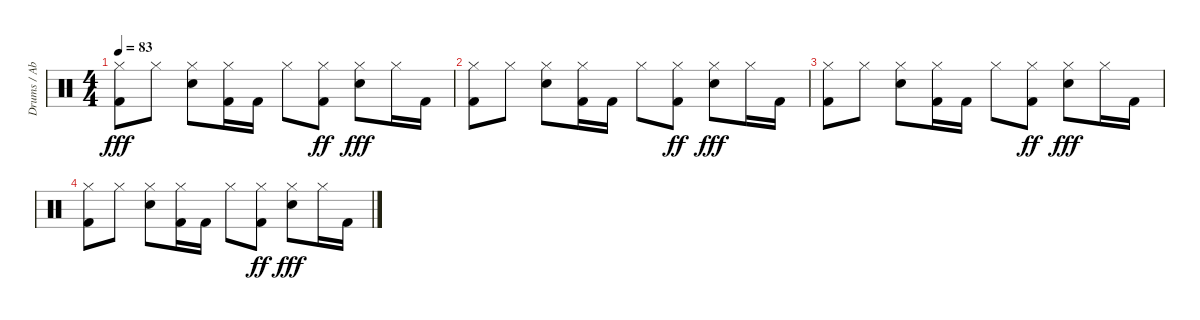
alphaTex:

\track ("Drums / Abe Cunningham" "Drums / Ab") {instrument percussion}
\staff {score}
\articulation defaults
\ts (4 4)
\tempo 83
\clef neutral
\ks c
("Hi-Hat (closed)" "Kick (hit) 2").8{dy fff volume 3} "Hi-Hat (closed)".8 ("Hi-Hat (closed)" "Electric Snare (hit)").8 ("Hi-Hat (closed)" "Kick (hit) 2").16 "Kick (hit) 2".16 "Hi-Hat (closed)".8 ("Hi-Hat (closed)" "Kick (hit) 2").8{dy ff} ("Hi-Hat (closed)" "Electric Snare (hit)").8{dy fff} "Hi-Hat (closed)".16 "Kick (hit) 2".16 |
("Hi-Hat (closed)" "Kick (hit) 2").8 "Hi-Hat (closed)".8 ("Hi-Hat (closed)" "Electric Snare (hit)").8 ("Hi-Hat (closed)" "Kick (hit) 2").16 "Kick (hit) 2".16 "Hi-Hat (closed)".8 ("Hi-Hat (closed)" "Kick (hit) 2").8{dy ff} ("Hi-Hat (closed)" "Electric Snare (hit)").8{dy fff} "Hi-Hat (closed)".16 "Kick (hit) 2".16 |
("Hi-Hat (closed)" "Kick (hit) 2").8{volume 0} "Hi-Hat (closed)".8 ("Hi-Hat (closed)" "Electric Snare (hit)").8 ("Hi-Hat (closed)" "Kick (hit) 2").16 "Kick (hit) 2".16 "Hi-Hat (closed)".8 ("Hi-Hat (closed)" "Kick (hit) 2").8{dy ff} ("Hi-Hat (closed)" "Electric Snare (hit)").8{dy fff} "Hi-Hat (closed)".16 "Kick (hit) 2".16 |
("Hi-Hat (closed)" "Kick (hit) 2").8 "Hi-Hat (closed)".8 ("Hi-Hat (closed)" "Electric Snare (hit)").8 ("Hi-Hat (closed)" "Kick (hit) 2").16 "Kick (hit) 2".16 "Hi-Hat (closed)".8 ("Hi-Hat (closed)" "Kick (hit) 2").8{dy ff} ("Hi-Hat (closed)" "Electric Snare (hit)").8{dy fff} "Hi-Hat (closed)".16 "Kick (hit) 2".16
